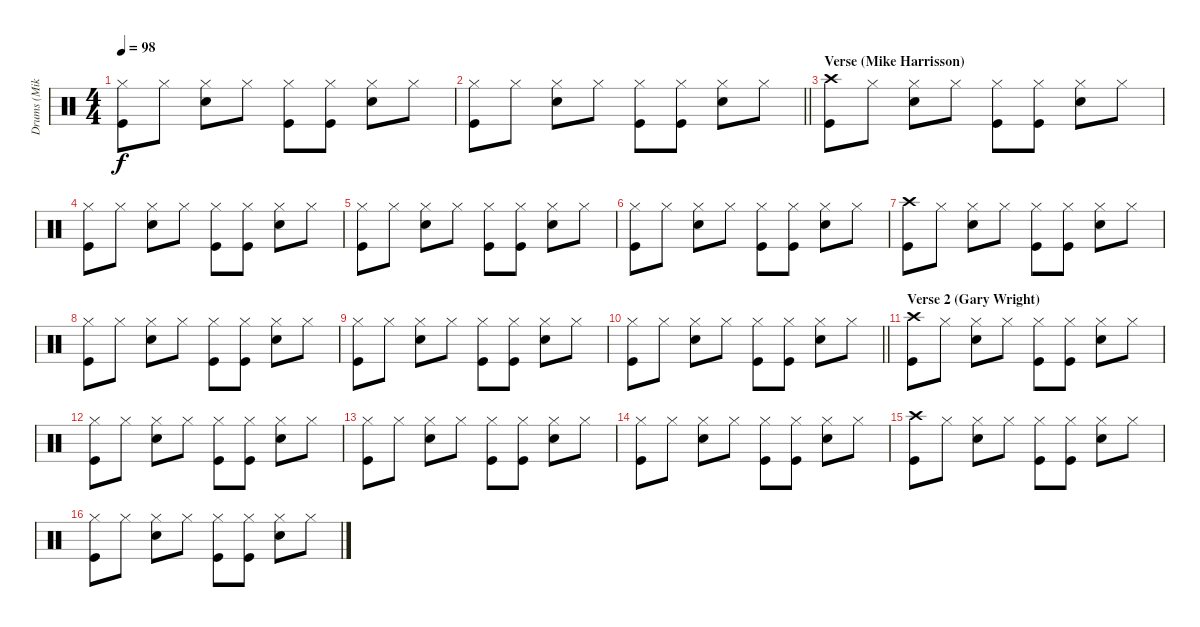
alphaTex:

\track ("Drums (Mike Kellie)" "Drums (Mik") {instrument percussion}
\staff {score}
\articulation defaults
\ts (4 4)
\tempo 98
\clef neutral
\ks c
("Hi-Hat (closed)" "Kick (hit)").8{dy f} "Hi-Hat (closed)".8 ("Hi-Hat (closed)" "Electric Snare (hit)").8 "Hi-Hat (closed)".8 ("Hi-Hat (closed)" "Kick (hit)").8 ("Hi-Hat (closed)" "Kick (hit)").8 ("Hi-Hat (closed)" "Electric Snare (hit)").8 "Hi-Hat (closed)".8 |
\barLineRight lightlight
("Hi-Hat (closed)" "Kick (hit)").8 "Hi-Hat (closed)".8 ("Hi-Hat (closed)" "Electric Snare (hit)").8 "Hi-Hat (closed)".8 ("Hi-Hat (closed)" "Kick (hit)").8 ("Hi-Hat (closed)" "Kick (hit)").8 ("Hi-Hat (closed)" "Electric Snare (hit)").8 "Hi-Hat (closed)".8 |
\section ("" "Verse (Mike Harrisson)")
("Crash high (hit)" "Kick (hit)").8 "Hi-Hat (closed)".8 ("Hi-Hat (closed)" "Electric Snare (hit)").8 "Hi-Hat (closed)".8 ("Hi-Hat (closed)" "Kick (hit)").8 ("Hi-Hat (closed)" "Kick (hit)").8 ("Hi-Hat (closed)" "Electric Snare (hit)").8 "Hi-Hat (closed)".8 |
("Hi-Hat (closed)" "Kick (hit)").8 "Hi-Hat (closed)".8 ("Hi-Hat (closed)" "Electric Snare (hit)").8 "Hi-Hat (closed)".8 ("Hi-Hat (closed)" "Kick (hit)").8 ("Hi-Hat (closed)" "Kick (hit)").8 ("Hi-Hat (closed)" "Electric Snare (hit)").8 "Hi-Hat (closed)".8 |
("Hi-Hat (closed)" "Kick (hit)").8 "Hi-Hat (closed)".8 ("Hi-Hat (closed)" "Electric Snare (hit)").8 "Hi-Hat (closed)".8 ("Hi-Hat (closed)" "Kick (hit)").8 ("Hi-Hat (closed)" "Kick (hit)").8 ("Hi-Hat (closed)" "Electric Snare (hit)").8 "Hi-Hat (closed)".8 |
("Hi-Hat (closed)" "Kick (hit)").8 "Hi-Hat (closed)".8 ("Hi-Hat (closed)" "Electric Snare (hit)").8 "Hi-Hat (closed)".8 ("Hi-Hat (closed)" "Kick (hit)").8 ("Hi-Hat (closed)" "Kick (hit)").8 ("Hi-Hat (closed)" "Electric Snare (hit)").8 "Hi-Hat (closed)".8 |
("Crash high (hit)" "Kick (hit)").8 "Hi-Hat (closed)".8 ("Hi-Hat (closed)" "Electric Snare (hit)").8 "Hi-Hat (closed)".8 ("Hi-Hat (closed)" "Kick (hit)").8 ("Hi-Hat (closed)" "Kick (hit)").8 ("Hi-Hat (closed)" "Electric Snare (hit)").8 "Hi-Hat (closed)".8 |
("Hi-Hat (closed)" "Kick (hit)").8 "Hi-Hat (closed)".8 ("Hi-Hat (closed)" "Electric Snare (hit)").8 "Hi-Hat (closed)".8 ("Hi-Hat (closed)" "Kick (hit)").8 ("Hi-Hat (closed)" "Kick (hit)").8 ("Hi-Hat (closed)" "Electric Snare (hit)").8 "Hi-Hat (closed)".8 |
("Hi-Hat (closed)" "Kick (hit)").8 "Hi-Hat (closed)".8 ("Hi-Hat (closed)" "Electric Snare (hit)").8 "Hi-Hat (closed)".8 ("Hi-Hat (closed)" "Kick (hit)").8 ("Hi-Hat (closed)" "Kick (hit)").8 ("Hi-Hat (closed)" "Electric Snare (hit)").8 "Hi-Hat (closed)".8 |
\barLineRight lightlight
("Hi-Hat (closed)" "Kick (hit)").8 "Hi-Hat (closed)".8 ("Hi-Hat (closed)" "Electric Snare (hit)").8 "Hi-Hat (closed)".8 ("Hi-Hat (closed)" "Kick (hit)").8 ("Hi-Hat (closed)" "Kick (hit)").8 ("Hi-Hat (closed)" "Electric Snare (hit)").8 "Hi-Hat (closed)".8 |
\section ("" "Verse 2 (Gary Wright)")
("Crash high (hit)" "Kick (hit)").8 "Hi-Hat (closed)".8 ("Hi-Hat (closed)" "Electric Snare (hit)").8 "Hi-Hat (closed)".8 ("Hi-Hat (closed)" "Kick (hit)").8 ("Hi-Hat (closed)" "Kick (hit)").8 ("Hi-Hat (closed)" "Electric Snare (hit)").8 "Hi-Hat (closed)".8 |
("Hi-Hat (closed)" "Kick (hit)").8 "Hi-Hat (closed)".8 ("Hi-Hat (closed)" "Electric Snare (hit)").8 "Hi-Hat (closed)".8 ("Hi-Hat (closed)" "Kick (hit)").8 ("Hi-Hat (closed)" "Kick (hit)").8 ("Hi-Hat (closed)" "Electric Snare (hit)").8 "Hi-Hat (closed)".8 |
("Hi-Hat (closed)" "Kick (hit)").8 "Hi-Hat (closed)".8 ("Hi-Hat (closed)" "Electric Snare (hit)").8 "Hi-Hat (closed)".8 ("Hi-Hat (closed)" "Kick (hit)").8 ("Hi-Hat (closed)" "Kick (hit)").8 ("Hi-Hat (closed)" "Electric Snare (hit)").8 "Hi-Hat (closed)".8 |
("Hi-Hat (closed)" "Kick (hit)").8 "Hi-Hat (closed)".8 ("Hi-Hat (closed)" "Electric Snare (hit)").8 "Hi-Hat (closed)".8 ("Hi-Hat (closed)" "Kick (hit)").8 ("Hi-Hat (closed)" "Kick (hit)").8 ("Hi-Hat (closed)" "Electric Snare (hit)").8 "Hi-Hat (closed)".8 |
("Crash high (hit)" "Kick (hit)").8 "Hi-Hat (closed)".8 ("Hi-Hat (closed)" "Electric Snare (hit)").8 "Hi-Hat (closed)".8 ("Hi-Hat (closed)" "Kick (hit)").8 ("Hi-Hat (closed)" "Kick (hit)").8 ("Hi-Hat (closed)" "Electric Snare (hit)").8 "Hi-Hat (closed)".8 |
("Hi-Hat (closed)" "Kick (hit)").8 "Hi-Hat (closed)".8 ("Hi-Hat (closed)" "Electric Snare (hit)").8 "Hi-Hat (closed)".8 ("Hi-Hat (closed)" "Kick (hit)").8 ("Hi-Hat (closed)" "Kick (hit)").8 ("Hi-Hat (closed)" "Electric Snare (hit)").8 "Hi-Hat (closed)".8
